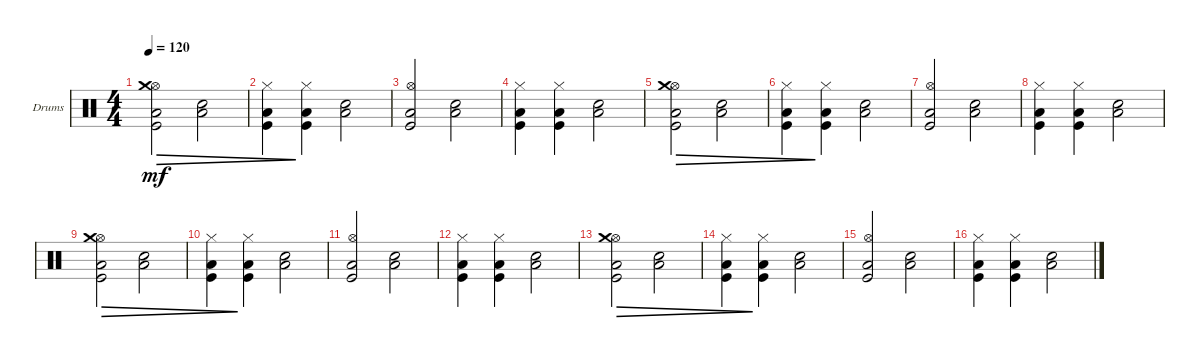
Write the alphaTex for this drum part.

\bracketExtendMode groupsimilarinstruments
\firstSystemTrackNameOrientation horizontal
\otherSystemsTrackNameOrientation horizontal
\track ("Drumkit" "Drums") {instrument percussion}
\staff {score}
\articulation defaults
\ts (4 4)
\tempo 120
\clef neutral
\ks c
("Kick (hit)" "Hi-Hat (open)" "Low Tom (hit)" "Crash medium (hit)").2{dec dy mf} ("Snare (hit) 2" "Low Tom (hit)").2{dec} |
("Kick (hit)" "Low Tom (hit)" "Hi-Hat (closed)").4{dec} ("Kick (hit)" "Low Tom (hit)" "Hi-Hat (closed)").4 ("Snare (hit) 2" "Low Tom (hit)").2 |
("Kick (hit)" "Hi-Hat (open)" "Low Tom (hit)").2 ("Snare (hit) 2" "Low Tom (hit)").2 |
("Kick (hit)" "Low Tom (hit)" "Hi-Hat (closed)").4 ("Kick (hit)" "Low Tom (hit)" "Hi-Hat (closed)").4 ("Snare (hit) 2" "Low Tom (hit)").2 |
("Kick (hit)" "Hi-Hat (open)" "Low Tom (hit)" "Crash medium (hit)").2{dec} ("Snare (hit) 2" "Low Tom (hit)").2{dec} |
("Kick (hit)" "Low Tom (hit)" "Hi-Hat (closed)").4{dec} ("Kick (hit)" "Low Tom (hit)" "Hi-Hat (closed)").4 ("Snare (hit) 2" "Low Tom (hit)").2 |
("Kick (hit)" "Hi-Hat (open)" "Low Tom (hit)").2 ("Snare (hit) 2" "Low Tom (hit)").2 |
("Kick (hit)" "Low Tom (hit)" "Hi-Hat (closed)").4 ("Kick (hit)" "Low Tom (hit)" "Hi-Hat (closed)").4 ("Snare (hit) 2" "Low Tom (hit)").2 |
("Kick (hit)" "Hi-Hat (open)" "Low Tom (hit)" "Crash medium (hit)").2{dec} ("Low Tom (hit)" "Snare (hit) 2").2{dec} |
("Kick (hit)" "Low Tom (hit)" "Hi-Hat (closed)").4{dec} ("Kick (hit)" "Low Tom (hit)" "Hi-Hat (closed)").4 ("Snare (hit) 2" "Low Tom (hit)").2 |
("Kick (hit)" "Hi-Hat (open)" "Low Tom (hit)").2 ("Snare (hit) 2" "Low Tom (hit)").2 |
("Kick (hit)" "Low Tom (hit)" "Hi-Hat (closed)").4 ("Kick (hit)" "Low Tom (hit)" "Hi-Hat (closed)").4 ("Snare (hit) 2" "Low Tom (hit)").2 |
("Kick (hit)" "Hi-Hat (open)" "Low Tom (hit)" "Crash medium (hit)").2{dec} ("Snare (hit) 2" "Low Tom (hit)").2{dec} |
("Kick (hit)" "Low Tom (hit)" "Hi-Hat (closed)").4{dec} ("Kick (hit)" "Low Tom (hit)" "Hi-Hat (closed)").4 ("Snare (hit) 2" "Low Tom (hit)").2 |
("Kick (hit)" "Hi-Hat (open)" "Low Tom (hit)").2 ("Snare (hit) 2" "Low Tom (hit)").2 |
("Kick (hit)" "Low Tom (hit)" "Hi-Hat (closed)").4 ("Kick (hit)" "Low Tom (hit)" "Hi-Hat (closed)").4 ("Snare (hit) 2" "Low Tom (hit)").2
